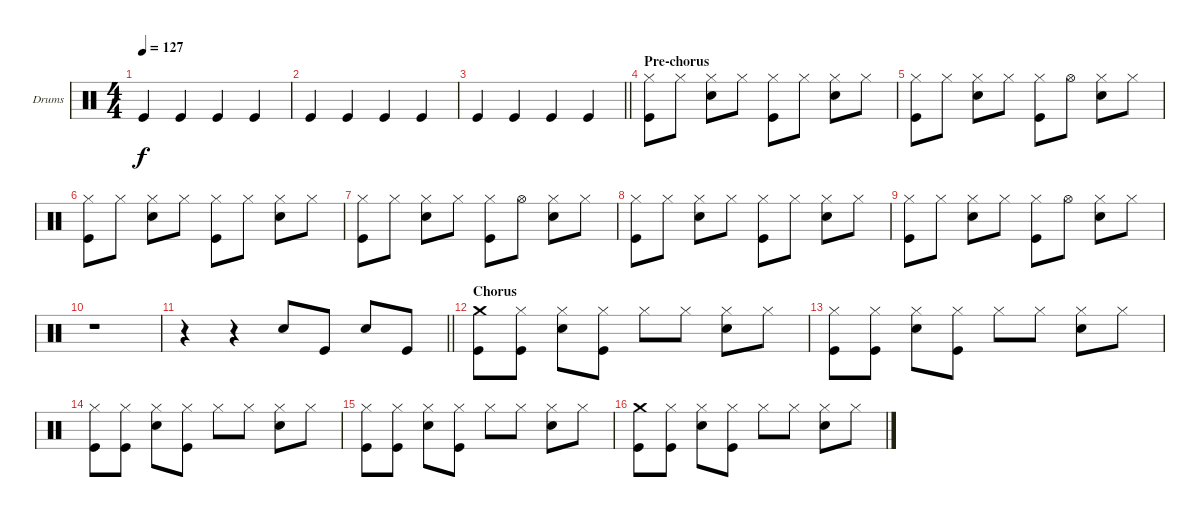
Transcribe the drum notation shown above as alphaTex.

\bracketExtendMode groupsimilarinstruments
\firstSystemTrackNameOrientation horizontal
\otherSystemsTrackNameOrientation horizontal
\track ("Drumkit" "Drums") {instrument percussion}
\staff {score}
\articulation defaults
\ts (4 4)
\tempo 127
\clef neutral
\ks c "Kick (hit)".4{dy f} "Kick (hit)".4 "Kick (hit)".4 "Kick (hit)".4
|
"Kick (hit)".4 "Kick (hit)".4 "Kick (hit)".4 "Kick (hit)".4 |
\barLineRight lightlight "Kick (hit)".4 "Kick (hit)".4 "Kick (hit)".4 "Kick (hit)".4
|
\section ("" "Pre-chorus")
("Hi-Hat (closed)" "Kick (hit)").8 "Hi-Hat (closed)".8 ("Hi-Hat (closed)" "Snare (hit) 2").8 "Hi-Hat (closed)".8 ("Hi-Hat (closed)" "Kick (hit)").8 "Hi-Hat (closed)".8 ("Hi-Hat (closed)" "Snare (hit) 2").8 "Hi-Hat (closed)".8 |
("Hi-Hat (closed)" "Kick (hit)").8 "Hi-Hat (closed)".8 ("Hi-Hat (closed)" "Snare (hit) 2").8 "Hi-Hat (closed)".8 ("Hi-Hat (closed)" "Kick (hit)").8 "Hi-Hat (open)".8 ("Hi-Hat (closed)" "Snare (hit) 2").8 "Hi-Hat (closed)".8 |
("Hi-Hat (closed)" "Kick (hit)").8 "Hi-Hat (closed)".8 ("Hi-Hat (closed)" "Snare (hit) 2").8 "Hi-Hat (closed)".8 ("Hi-Hat (closed)" "Kick (hit)").8 "Hi-Hat (closed)".8 ("Hi-Hat (closed)" "Snare (hit) 2").8 "Hi-Hat (closed)".8 |
("Hi-Hat (closed)" "Kick (hit)").8 "Hi-Hat (closed)".8 ("Hi-Hat (closed)" "Snare (hit) 2").8 "Hi-Hat (closed)".8 ("Hi-Hat (closed)" "Kick (hit)").8 "Hi-Hat (open)".8 ("Hi-Hat (closed)" "Snare (hit) 2").8 "Hi-Hat (closed)".8 |
("Hi-Hat (closed)" "Kick (hit)").8 "Hi-Hat (closed)".8 ("Hi-Hat (closed)" "Snare (hit) 2").8 "Hi-Hat (closed)".8 ("Hi-Hat (closed)" "Kick (hit)").8 "Hi-Hat (closed)".8 ("Hi-Hat (closed)" "Snare (hit) 2").8 "Hi-Hat (closed)".8 |
("Hi-Hat (closed)" "Kick (hit)").8 "Hi-Hat (closed)".8 ("Hi-Hat (closed)" "Snare (hit) 2").8 "Hi-Hat (closed)".8 ("Hi-Hat (closed)" "Kick (hit)").8 "Hi-Hat (open)".8 ("Hi-Hat (closed)" "Snare (hit) 2").8 "Hi-Hat (closed)".8 |
r.1 |
\barLineRight lightlight
r.4 r.4 "Snare (hit) 2".8 "Kick (hit)".8 "Snare (hit) 2".8 "Kick (hit)".8 |
\section ("" "Chorus")
("Crash medium (hit)" "Kick (hit)").8 ("Hi-Hat (closed)" "Kick (hit)").8 ("Hi-Hat (closed)" "Snare (hit) 2").8 ("Hi-Hat (closed)" "Kick (hit)").8 "Hi-Hat (closed)".8 "Hi-Hat (closed)".8 ("Hi-Hat (closed)" "Snare (hit) 2").8 "Hi-Hat (closed)".8 |
("Hi-Hat (closed)" "Kick (hit)").8 ("Hi-Hat (closed)" "Kick (hit)").8 ("Hi-Hat (closed)" "Snare (hit) 2").8 ("Hi-Hat (closed)" "Kick (hit)").8 "Hi-Hat (closed)".8 "Hi-Hat (closed)".8 ("Hi-Hat (closed)" "Snare (hit) 2").8 "Hi-Hat (closed)".8 |
("Hi-Hat (closed)" "Kick (hit)").8 ("Hi-Hat (closed)" "Kick (hit)").8 ("Hi-Hat (closed)" "Snare (hit) 2").8 ("Hi-Hat (closed)" "Kick (hit)").8 "Hi-Hat (closed)".8 "Hi-Hat (closed)".8 ("Hi-Hat (closed)" "Snare (hit) 2").8 "Hi-Hat (closed)".8 |
("Hi-Hat (closed)" "Kick (hit)").8 ("Hi-Hat (closed)" "Kick (hit)").8 ("Hi-Hat (closed)" "Snare (hit) 2").8 ("Hi-Hat (closed)" "Kick (hit)").8 "Hi-Hat (closed)".8 "Hi-Hat (closed)".8 ("Hi-Hat (closed)" "Snare (hit) 2").8 "Hi-Hat (closed)".8 |
("Crash medium (hit)" "Kick (hit)").8 ("Hi-Hat (closed)" "Kick (hit)").8 ("Hi-Hat (closed)" "Snare (hit) 2").8 ("Hi-Hat (closed)" "Kick (hit)").8 "Hi-Hat (closed)".8 "Hi-Hat (closed)".8 ("Hi-Hat (closed)" "Snare (hit) 2").8 "Hi-Hat (closed)".8
